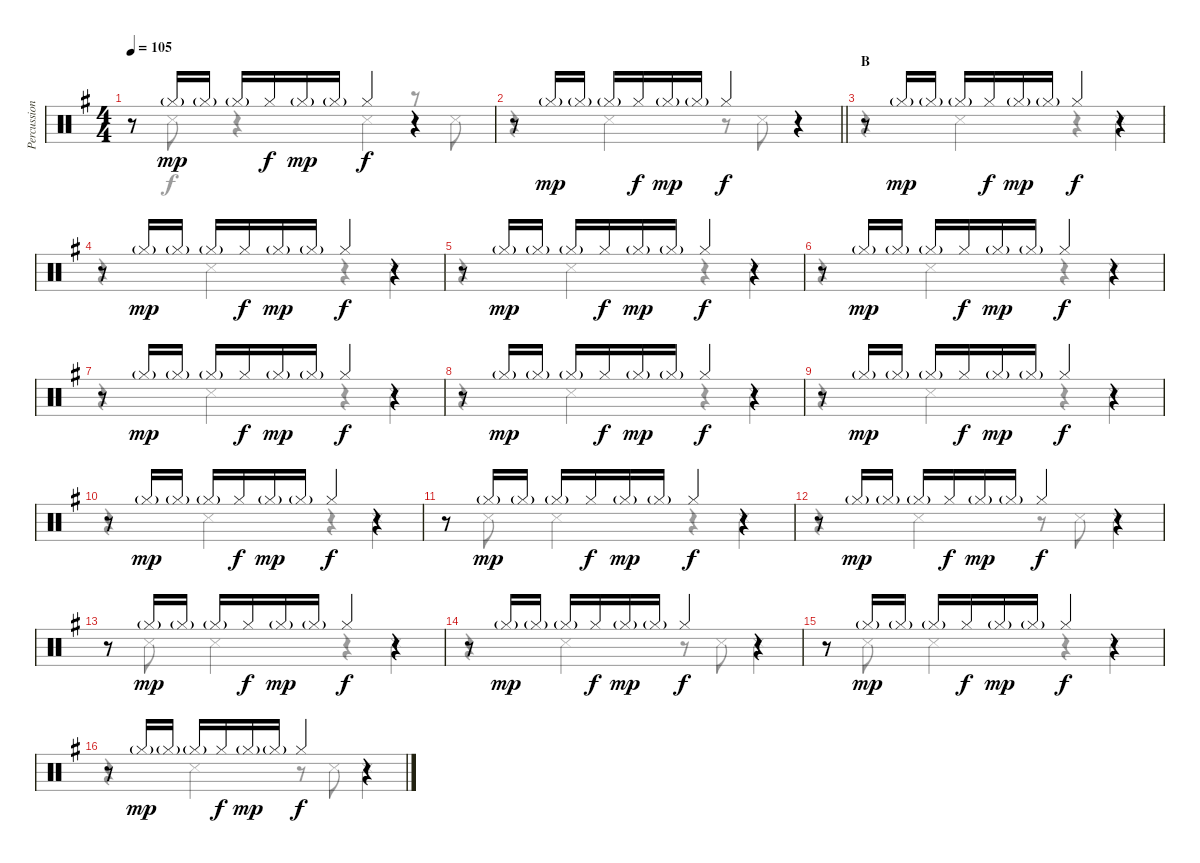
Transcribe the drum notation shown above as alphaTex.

\track ("Percussion" "Percussion") {instrument percussion}
\staff {score}
\articulation defaults
\voice
\ts (4 4)
\tempo 105
\clef neutral
\ks g
r.8{dy f} "Hi-Hat (closed)"{g}.16{dy mp} "Hi-Hat (closed)"{g}.16 "Hi-Hat (closed)"{g}.16 "Hi-Hat (closed)".16{dy f} "Hi-Hat (closed)"{g}.16{dy mp} "Hi-Hat (closed)"{g}.16 "Hi-Hat (closed)".4{dy f} r.4 |
\barLineRight lightlight
r.8 "Hi-Hat (closed)"{g}.16{dy mp} "Hi-Hat (closed)"{g}.16 "Hi-Hat (closed)"{g}.16 "Hi-Hat (closed)".16{dy f} "Hi-Hat (closed)"{g}.16{dy mp} "Hi-Hat (closed)"{g}.16 "Hi-Hat (closed)".4{dy f} r.4 |
\section ("" "B")
r.8 "Hi-Hat (closed)"{g}.16{dy mp} "Hi-Hat (closed)"{g}.16 "Hi-Hat (closed)"{g}.16 "Hi-Hat (closed)".16{dy f} "Hi-Hat (closed)"{g}.16{dy mp} "Hi-Hat (closed)"{g}.16 "Hi-Hat (closed)".4{dy f} r.4 |
r.8 "Hi-Hat (closed)"{g}.16{dy mp} "Hi-Hat (closed)"{g}.16 "Hi-Hat (closed)"{g}.16 "Hi-Hat (closed)".16{dy f} "Hi-Hat (closed)"{g}.16{dy mp} "Hi-Hat (closed)"{g}.16 "Hi-Hat (closed)".4{dy f} r.4 |
r.8 "Hi-Hat (closed)"{g}.16{dy mp} "Hi-Hat (closed)"{g}.16 "Hi-Hat (closed)"{g}.16 "Hi-Hat (closed)".16{dy f} "Hi-Hat (closed)"{g}.16{dy mp} "Hi-Hat (closed)"{g}.16 "Hi-Hat (closed)".4{dy f} r.4 |
r.8 "Hi-Hat (closed)"{g}.16{dy mp} "Hi-Hat (closed)"{g}.16 "Hi-Hat (closed)"{g}.16 "Hi-Hat (closed)".16{dy f} "Hi-Hat (closed)"{g}.16{dy mp} "Hi-Hat (closed)"{g}.16 "Hi-Hat (closed)".4{dy f} r.4 |
r.8 "Hi-Hat (closed)"{g}.16{dy mp} "Hi-Hat (closed)"{g}.16 "Hi-Hat (closed)"{g}.16 "Hi-Hat (closed)".16{dy f} "Hi-Hat (closed)"{g}.16{dy mp} "Hi-Hat (closed)"{g}.16 "Hi-Hat (closed)".4{dy f} r.4 |
r.8 "Hi-Hat (closed)"{g}.16{dy mp} "Hi-Hat (closed)"{g}.16 "Hi-Hat (closed)"{g}.16 "Hi-Hat (closed)".16{dy f} "Hi-Hat (closed)"{g}.16{dy mp} "Hi-Hat (closed)"{g}.16 "Hi-Hat (closed)".4{dy f} r.4 |
r.8 "Hi-Hat (closed)"{g}.16{dy mp} "Hi-Hat (closed)"{g}.16 "Hi-Hat (closed)"{g}.16 "Hi-Hat (closed)".16{dy f} "Hi-Hat (closed)"{g}.16{dy mp} "Hi-Hat (closed)"{g}.16 "Hi-Hat (closed)".4{dy f} r.4 |
r.8 "Hi-Hat (closed)"{g}.16{dy mp} "Hi-Hat (closed)"{g}.16 "Hi-Hat (closed)"{g}.16 "Hi-Hat (closed)".16{dy f} "Hi-Hat (closed)"{g}.16{dy mp} "Hi-Hat (closed)"{g}.16 "Hi-Hat (closed)".4{dy f} r.4 |
r.8 "Hi-Hat (closed)"{g}.16{dy mp} "Hi-Hat (closed)"{g}.16 "Hi-Hat (closed)"{g}.16 "Hi-Hat (closed)".16{dy f} "Hi-Hat (closed)"{g}.16{dy mp} "Hi-Hat (closed)"{g}.16 "Hi-Hat (closed)".4{dy f} r.4 |
r.8 "Hi-Hat (closed)"{g}.16{dy mp} "Hi-Hat (closed)"{g}.16 "Hi-Hat (closed)"{g}.16 "Hi-Hat (closed)".16{dy f} "Hi-Hat (closed)"{g}.16{dy mp} "Hi-Hat (closed)"{g}.16 "Hi-Hat (closed)".4{dy f} r.4 |
r.8 "Hi-Hat (closed)"{g}.16{dy mp} "Hi-Hat (closed)"{g}.16 "Hi-Hat (closed)"{g}.16 "Hi-Hat (closed)".16{dy f} "Hi-Hat (closed)"{g}.16{dy mp} "Hi-Hat (closed)"{g}.16 "Hi-Hat (closed)".4{dy f} r.4 |
r.8 "Hi-Hat (closed)"{g}.16{dy mp} "Hi-Hat (closed)"{g}.16 "Hi-Hat (closed)"{g}.16 "Hi-Hat (closed)".16{dy f} "Hi-Hat (closed)"{g}.16{dy mp} "Hi-Hat (closed)"{g}.16 "Hi-Hat (closed)".4{dy f} r.4 |
r.8 "Hi-Hat (closed)"{g}.16{dy mp} "Hi-Hat (closed)"{g}.16 "Hi-Hat (closed)"{g}.16 "Hi-Hat (closed)".16{dy f} "Hi-Hat (closed)"{g}.16{dy mp} "Hi-Hat (closed)"{g}.16 "Hi-Hat (closed)".4{dy f} r.4 |
r.8 "Hi-Hat (closed)"{g}.16{dy mp} "Hi-Hat (closed)"{g}.16 "Hi-Hat (closed)"{g}.16 "Hi-Hat (closed)".16{dy f} "Hi-Hat (closed)"{g}.16{dy mp} "Hi-Hat (closed)"{g}.16 "Hi-Hat (closed)".4{dy f} r.4
\voice
\clef neutral
\ottava regular
\simile none
\ks g
r.8{dy f} "Snare (side stick) 3".8 r.4 "Snare (side stick) 3".4 r.8 "Snare (side stick) 3".8 |
\barLineRight lightlight
r.4 "Snare (side stick) 3".4 r.8 "Snare (side stick) 3".8 r.4 |
r.4 "Snare (side stick) 3".4 r.4 "Snare (side stick) 3".4 |
r.4 "Snare (side stick) 3".4 r.4 "Snare (side stick) 3".4 |
r.4 "Snare (side stick) 3".4 r.4 "Snare (side stick) 3".4 |
r.4 "Snare (side stick) 3".4 r.4 "Snare (side stick) 3".4 |
r.4 "Snare (side stick) 3".4 r.4 "Snare (side stick) 3".4 |
r.4 "Snare (side stick) 3".4 r.4 "Snare (side stick) 3".4 |
r.4 "Snare (side stick) 3".4 r.4 "Snare (side stick) 3".4 |
r.4 "Snare (side stick) 3".4 r.4 "Snare (side stick) 3".4 |
r.8 "Snare (side stick) 3".8 "Snare (side stick) 3".4 r.4 "Snare (side stick) 3".4 |
r.4 "Snare (side stick) 3".4 r.8 "Snare (side stick) 3".8 "Snare (side stick) 3".4 |
r.8 "Snare (side stick) 3".8 "Snare (side stick) 3".4 r.4 "Snare (side stick) 3".4 |
r.4 "Snare (side stick) 3".4 r.8 "Snare (side stick) 3".8 "Snare (side stick) 3".4 |
r.8 "Snare (side stick) 3".8 "Snare (side stick) 3".4 r.4 "Snare (side stick) 3".4 |
r.4 "Snare (side stick) 3".4 r.8 "Snare (side stick) 3".8 "Snare (side stick) 3".4
